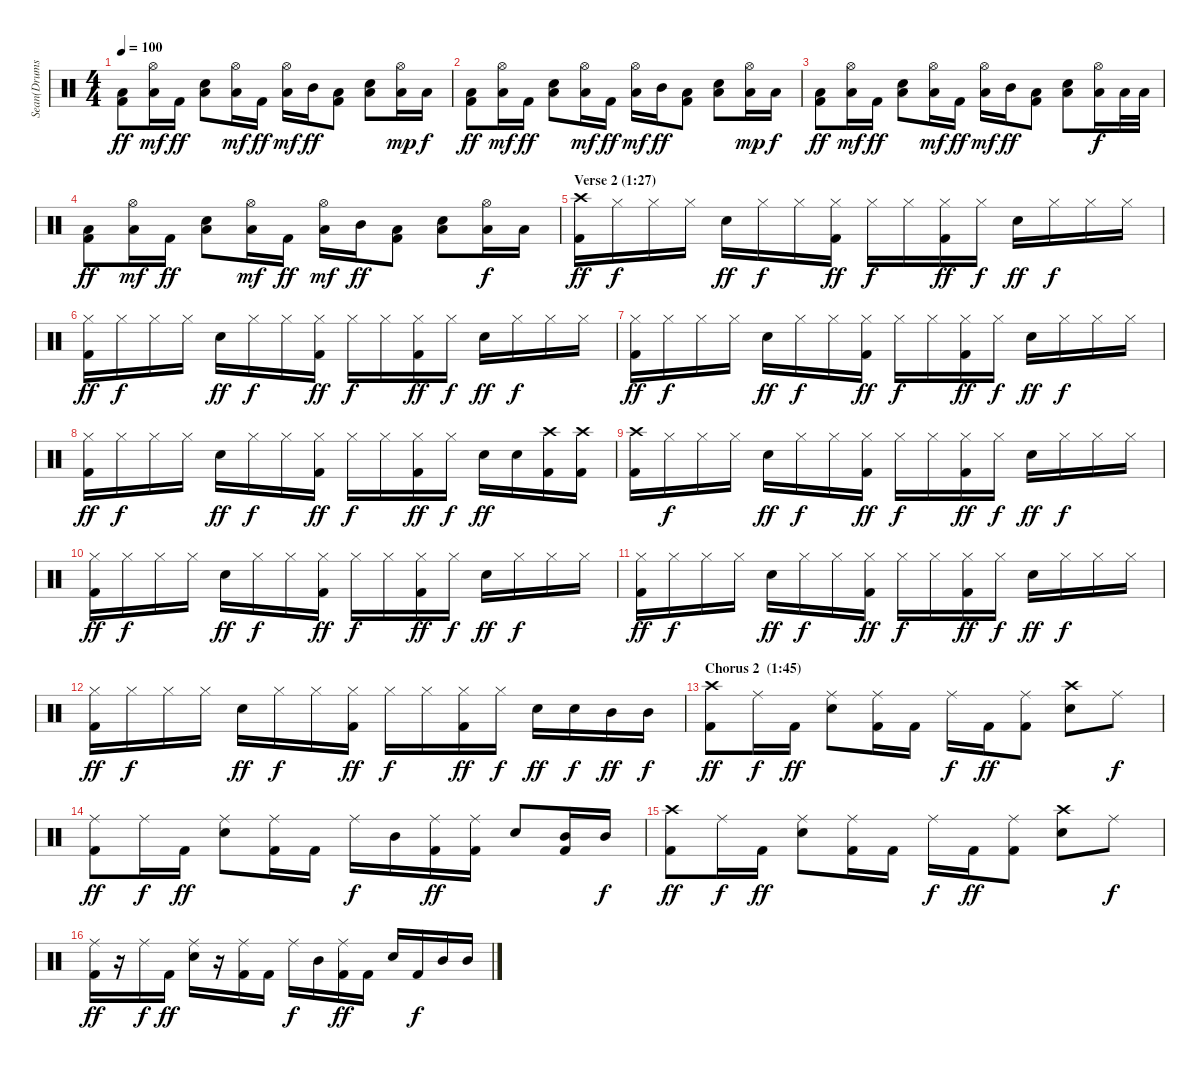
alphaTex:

\track ("Sean(Drums)" "Sean(Drums") {instrument percussion}
\staff {score}
\articulation defaults
\ts (4 4)
\tempo 100
\clef neutral
\ks c
("Low Tom (hit)" "Kick (hit) 2").8{dy ff} ("Hi-Hat (open)" "Low Tom (hit)").16{dy mf} "Kick (hit) 2".16{dy ff} ("Low Tom (hit)" "Electric Snare (hit)").8 ("Hi-Hat (open)" "Low Tom (hit)").16{dy mf} "Kick (hit) 2".16{dy ff} ("Hi-Hat (open)" "Low Tom (hit)").16{dy mf} "Mid Tom (hit)".16{dy ff} ("Low Tom (hit)" "Kick (hit) 2").8 ("Low Tom (hit)" "Electric Snare (hit)").8 ("Hi-Hat (open)" "Low Tom (hit)").16{dy mp} "Low Tom (hit)".16{dy f} |
("Low Tom (hit)" "Kick (hit) 2").8{dy ff} ("Hi-Hat (open)" "Low Tom (hit)").16{dy mf} "Kick (hit) 2".16{dy ff} ("Low Tom (hit)" "Electric Snare (hit)").8 ("Hi-Hat (open)" "Low Tom (hit)").16{dy mf} "Kick (hit) 2".16{dy ff} ("Hi-Hat (open)" "Low Tom (hit)").16{dy mf} "Mid Tom (hit)".16{dy ff} ("Low Tom (hit)" "Kick (hit) 2").8 ("Low Tom (hit)" "Electric Snare (hit)").8 ("Hi-Hat (open)" "Low Tom (hit)").16{dy mp} "Low Tom (hit)".16{dy f} |
("Low Tom (hit)" "Kick (hit) 2").8{dy ff} ("Hi-Hat (open)" "Low Tom (hit)").16{dy mf} "Kick (hit) 2".16{dy ff} ("Low Tom (hit)" "Electric Snare (hit)").8 ("Hi-Hat (open)" "Low Tom (hit)").16{dy mf} "Kick (hit) 2".16{dy ff} ("Hi-Hat (open)" "Low Tom (hit)").16{dy mf} "Mid Tom (hit)".16{dy ff} ("Low Tom (hit)" "Kick (hit) 2").8 ("Low Tom (hit)" "Electric Snare (hit)").8 ("Hi-Hat (open)" "Low Tom (hit)").16{dy f} "Low Tom (hit)".32 "Low Tom (hit)".32 |
("Low Tom (hit)" "Kick (hit) 2").8{dy ff} ("Hi-Hat (open)" "Low Tom (hit)").16{dy mf} "Kick (hit) 2".16{dy ff} ("Low Tom (hit)" "Electric Snare (hit)").8 ("Hi-Hat (open)" "Low Tom (hit)").16{dy mf} "Kick (hit) 2".16{dy ff} ("Hi-Hat (open)" "Low Tom (hit)").16{dy mf} "Mid Tom (hit)".16{dy ff} ("Low Tom (hit)" "Kick (hit) 2").8 ("Low Tom (hit)" "Electric Snare (hit)").8 ("Hi-Hat (open)" "Low Floor Tom (hit)").16{dy f} "Low Floor Tom (hit)".16 |
\section ("" "Verse 2 (1:27)")
("Crash high (hit)" "Kick (hit) 2").16{dy ff} "Hi-Hat (closed)".16{dy f} "Hi-Hat (closed)".16 "Hi-Hat (closed)".16 "Electric Snare (hit)".16{dy ff} "Hi-Hat (closed)".16{dy f} "Hi-Hat (closed)".16 ("Hi-Hat (closed)" "Kick (hit) 2").16{dy ff} "Hi-Hat (closed)".16{dy f} "Hi-Hat (closed)".16 ("Hi-Hat (closed)" "Kick (hit) 2").16{dy ff} "Hi-Hat (closed)".16{dy f} "Electric Snare (hit)".16{dy ff} "Hi-Hat (closed)".16{dy f} "Hi-Hat (closed)".16 "Hi-Hat (closed)".16 |
("Hi-Hat (closed)" "Kick (hit) 2").16{dy ff} "Hi-Hat (closed)".16{dy f} "Hi-Hat (closed)".16 "Hi-Hat (closed)".16 "Electric Snare (hit)".16{dy ff} "Hi-Hat (closed)".16{dy f} "Hi-Hat (closed)".16 ("Hi-Hat (closed)" "Kick (hit) 2").16{dy ff} "Hi-Hat (closed)".16{dy f} "Hi-Hat (closed)".16 ("Hi-Hat (closed)" "Kick (hit) 2").16{dy ff} "Hi-Hat (closed)".16{dy f} "Electric Snare (hit)".16{dy ff} "Hi-Hat (closed)".16{dy f} "Hi-Hat (closed)".16 "Hi-Hat (closed)".16 |
("Hi-Hat (closed)" "Kick (hit) 2").16{dy ff} "Hi-Hat (closed)".16{dy f} "Hi-Hat (closed)".16 "Hi-Hat (closed)".16 "Electric Snare (hit)".16{dy ff} "Hi-Hat (closed)".16{dy f} "Hi-Hat (closed)".16 ("Hi-Hat (closed)" "Kick (hit) 2").16{dy ff} "Hi-Hat (closed)".16{dy f} "Hi-Hat (closed)".16 ("Hi-Hat (closed)" "Kick (hit) 2").16{dy ff} "Hi-Hat (closed)".16{dy f} "Electric Snare (hit)".16{dy ff} "Hi-Hat (closed)".16{dy f} "Hi-Hat (closed)".16 "Hi-Hat (closed)".16 |
("Hi-Hat (closed)" "Kick (hit) 2").16{dy ff} "Hi-Hat (closed)".16{dy f} "Hi-Hat (closed)".16 "Hi-Hat (closed)".16 "Electric Snare (hit)".16{dy ff} "Hi-Hat (closed)".16{dy f} "Hi-Hat (closed)".16 ("Hi-Hat (closed)" "Kick (hit) 2").16{dy ff} "Hi-Hat (closed)".16{dy f} "Hi-Hat (closed)".16 ("Hi-Hat (closed)" "Kick (hit) 2").16{dy ff} "Hi-Hat (closed)".16{dy f} "Electric Snare (hit)".16{dy ff} "Electric Snare (hit)".16 ("Crash high (hit)" "Kick (hit) 2").16 ("Crash high (hit)" "Kick (hit) 2").16 |
("Crash high (hit)" "Kick (hit) 2").16 "Hi-Hat (closed)".16{dy f} "Hi-Hat (closed)".16 "Hi-Hat (closed)".16 "Electric Snare (hit)".16{dy ff} "Hi-Hat (closed)".16{dy f} "Hi-Hat (closed)".16 ("Hi-Hat (closed)" "Kick (hit) 2").16{dy ff} "Hi-Hat (closed)".16{dy f} "Hi-Hat (closed)".16 ("Hi-Hat (closed)" "Kick (hit) 2").16{dy ff} "Hi-Hat (closed)".16{dy f} "Electric Snare (hit)".16{dy ff} "Hi-Hat (closed)".16{dy f} "Hi-Hat (closed)".16 "Hi-Hat (closed)".16 |
("Hi-Hat (closed)" "Kick (hit) 2").16{dy ff} "Hi-Hat (closed)".16{dy f} "Hi-Hat (closed)".16 "Hi-Hat (closed)".16 "Electric Snare (hit)".16{dy ff} "Hi-Hat (closed)".16{dy f} "Hi-Hat (closed)".16 ("Hi-Hat (closed)" "Kick (hit) 2").16{dy ff} "Hi-Hat (closed)".16{dy f} "Hi-Hat (closed)".16 ("Hi-Hat (closed)" "Kick (hit) 2").16{dy ff} "Hi-Hat (closed)".16{dy f} "Electric Snare (hit)".16{dy ff} "Hi-Hat (closed)".16{dy f} "Hi-Hat (closed)".16 "Hi-Hat (closed)".16 |
("Hi-Hat (closed)" "Kick (hit) 2").16{dy ff} "Hi-Hat (closed)".16{dy f} "Hi-Hat (closed)".16 "Hi-Hat (closed)".16 "Electric Snare (hit)".16{dy ff} "Hi-Hat (closed)".16{dy f} "Hi-Hat (closed)".16 ("Hi-Hat (closed)" "Kick (hit) 2").16{dy ff} "Hi-Hat (closed)".16{dy f} "Hi-Hat (closed)".16 ("Hi-Hat (closed)" "Kick (hit) 2").16{dy ff} "Hi-Hat (closed)".16{dy f} "Electric Snare (hit)".16{dy ff} "Hi-Hat (closed)".16{dy f} "Hi-Hat (closed)".16 "Hi-Hat (closed)".16 |
("Hi-Hat (closed)" "Kick (hit) 2").16{dy ff} "Hi-Hat (closed)".16{dy f} "Hi-Hat (closed)".16 "Hi-Hat (closed)".16 "Electric Snare (hit)".16{dy ff} "Hi-Hat (closed)".16{dy f} "Hi-Hat (closed)".16 ("Hi-Hat (closed)" "Kick (hit) 2").16{dy ff} "Hi-Hat (closed)".16{dy f} "Hi-Hat (closed)".16 ("Hi-Hat (closed)" "Kick (hit) 2").16{dy ff} "Hi-Hat (closed)".16{dy f} "Electric Snare (hit)".16{dy ff} "Electric Snare (hit)".16{dy f} "Mid Tom (hit)".16{dy ff} "Mid Tom (hit)".16{dy f} |
\section ("" "Chorus 2  (1:45)")
("Crash high (hit)" "Kick (hit) 2").8{dy ff} "Ride (middle)".16{dy f} "Kick (hit) 2".16{dy ff} ("Ride (middle)" "Electric Snare (hit)").8 ("Ride (middle)" "Kick (hit) 2").16 "Kick (hit) 2".16 "Ride (middle)".16{dy f} "Kick (hit) 2".16{dy ff} ("Ride (middle)" "Kick (hit) 2").8 ("Crash high (hit)" "Electric Snare (hit)").8 "Ride (middle)".8{dy f} |
("Ride (middle)" "Kick (hit) 2").8{dy ff} "Ride (middle)".16{dy f} "Kick (hit) 2".16{dy ff} ("Ride (middle)" "Electric Snare (hit)").8 ("Ride (middle)" "Kick (hit) 2").16 "Kick (hit) 2".16 "Ride (middle)".16{dy f} "Mid Tom (hit)".16 ("Ride (middle)" "Kick (hit) 2").16{dy ff} ("Ride (middle)" "Kick (hit) 2").16 "Electric Snare (hit)".8 ("Mid Tom (hit)" "Kick (hit) 2").16 "Mid Tom (hit)".16{dy f} |
("Crash high (hit)" "Kick (hit) 2").8{dy ff} "Ride (middle)".16{dy f} "Kick (hit) 2".16{dy ff} ("Ride (middle)" "Electric Snare (hit)").8 ("Ride (middle)" "Kick (hit) 2").16 "Kick (hit) 2".16 "Ride (middle)".16{dy f} "Kick (hit) 2".16{dy ff} ("Ride (middle)" "Kick (hit) 2").8 ("Crash high (hit)" "Electric Snare (hit)").8 "Ride (middle)".8{dy f} |
("Ride (middle)" "Kick (hit) 2").16{dy ff} r.16 "Ride (middle)".16{dy f} "Kick (hit) 2".16{dy ff} ("Ride (middle)" "Electric Snare (hit)").16 r.16 ("Ride (middle)" "Kick (hit) 2").16 "Kick (hit) 2".16 "Ride (middle)".16{dy f} "Mid Tom (hit)".16 ("Ride (middle)" "Kick (hit) 2").16{dy ff} "Kick (hit) 2".16 "Electric Snare (hit)".16 "Kick (hit) 2".16{dy f} "Mid Tom (hit)".16 "Mid Tom (hit)".16
